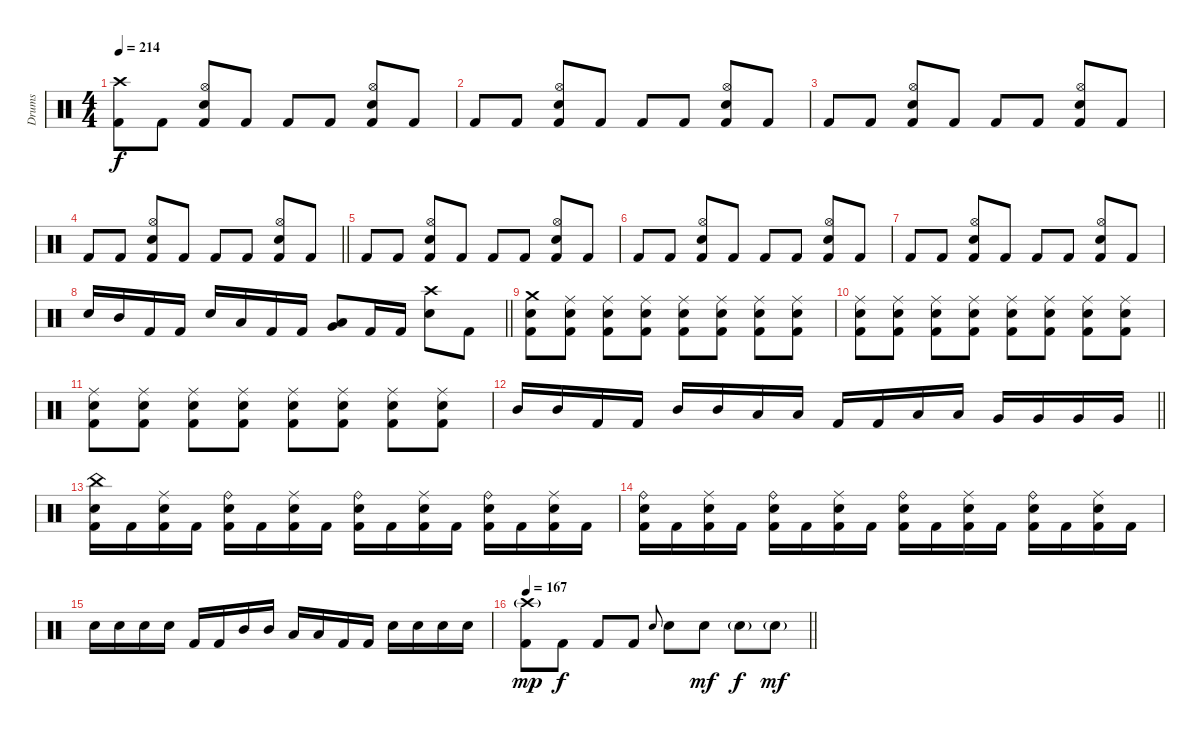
\track ("Drums" "Drums") {instrument percussion}
\staff {score}
\articulation defaults
\ts (4 4)
\section ("" "")
\tempo 214
\clef neutral
\ks c
("Crash high (hit)" "Kick (hit) 2").8{dy f} "Kick (hit) 2".8 ("Hi-Hat (open)" "Electric Snare (hit)" "Kick (hit) 2").8 "Kick (hit) 2".8 "Kick (hit) 2".8 "Kick (hit) 2".8 ("Hi-Hat (open)" "Electric Snare (hit)" "Kick (hit) 2").8 "Kick (hit) 2".8 |
"Kick (hit) 2".8 "Kick (hit) 2".8 ("Hi-Hat (open)" "Electric Snare (hit)" "Kick (hit) 2").8 "Kick (hit) 2".8 "Kick (hit) 2".8 "Kick (hit) 2".8 ("Hi-Hat (open)" "Electric Snare (hit)" "Kick (hit) 2").8 "Kick (hit) 2".8 |
"Kick (hit) 2".8 "Kick (hit) 2".8 ("Hi-Hat (open)" "Electric Snare (hit)" "Kick (hit) 2").8 "Kick (hit) 2".8 "Kick (hit) 2".8 "Kick (hit) 2".8 ("Hi-Hat (open)" "Electric Snare (hit)" "Kick (hit) 2").8 "Kick (hit) 2".8 |
\barLineRight lightlight "Kick (hit) 2".8 "Kick (hit) 2".8
("Hi-Hat (open)" "Electric Snare (hit)" "Kick (hit) 2").8 "Kick (hit) 2".8 "Kick (hit) 2".8 "Kick (hit) 2".8 ("Hi-Hat (open)" "Electric Snare (hit)" "Kick (hit) 2").8 "Kick (hit) 2".8 |
"Kick (hit) 2".8 "Kick (hit) 2".8 ("Hi-Hat (open)" "Electric Snare (hit)" "Kick (hit) 2").8 "Kick (hit) 2".8 "Kick (hit) 2".8 "Kick (hit) 2".8 ("Hi-Hat (open)" "Electric Snare (hit)" "Kick (hit) 2").8 "Kick (hit) 2".8 |
"Kick (hit) 2".8 "Kick (hit) 2".8 ("Hi-Hat (open)" "Electric Snare (hit)" "Kick (hit) 2").8 "Kick (hit) 2".8 "Kick (hit) 2".8 "Kick (hit) 2".8 ("Hi-Hat (open)" "Electric Snare (hit)" "Kick (hit) 2").8 "Kick (hit) 2".8 |
"Kick (hit) 2".8 "Kick (hit) 2".8 ("Hi-Hat (open)" "Electric Snare (hit)" "Kick (hit) 2").8 "Kick (hit) 2".8 "Kick (hit) 2".8 "Kick (hit) 2".8 ("Hi-Hat (open)" "Electric Snare (hit)" "Kick (hit) 2").8 "Kick (hit) 2".8 |
\barLineRight lightlight "Electric Snare (hit)".16 "Mid Tom (hit)".16 "Kick (hit) 2".16 "Kick (hit) 2".16 "Electric Snare (hit)".16 "Low Tom (hit)".16 "Kick (hit) 2".16 "Kick (hit) 2".16
("Low Tom (hit)" "Very Low Tom (hit)").8 "Kick (hit) 2".16 "Kick (hit) 2".16 ("Crash high (hit)" "Electric Snare (hit)").8 "Kick (hit) 2".8 |
\section ("" "")
("Crash medium (hit)" "Electric Snare (hit)" "Kick (hit) 2").8 ("Ride (middle)" "Electric Snare (hit)" "Kick (hit) 2").8 ("Ride (middle)" "Electric Snare (hit)" "Kick (hit) 2").8 ("Ride (middle)" "Electric Snare (hit)" "Kick (hit) 2").8 ("Ride (middle)" "Electric Snare (hit)" "Kick (hit) 2").8 ("Ride (middle)" "Electric Snare (hit)" "Kick (hit) 2").8 ("Ride (middle)" "Electric Snare (hit)" "Kick (hit) 2").8 ("Ride (middle)" "Electric Snare (hit)" "Kick (hit) 2").8 |
("Ride (middle)" "Electric Snare (hit)" "Kick (hit) 2").8 ("Ride (middle)" "Electric Snare (hit)" "Kick (hit) 2").8 ("Ride (middle)" "Electric Snare (hit)" "Kick (hit) 2").8 ("Ride (middle)" "Electric Snare (hit)" "Kick (hit) 2").8 ("Ride (middle)" "Electric Snare (hit)" "Kick (hit) 2").8 ("Ride (middle)" "Electric Snare (hit)" "Kick (hit) 2").8 ("Ride (middle)" "Electric Snare (hit)" "Kick (hit) 2").8 ("Ride (middle)" "Electric Snare (hit)" "Kick (hit) 2").8 |
("Ride (middle)" "Electric Snare (hit)" "Kick (hit) 2").8 ("Ride (middle)" "Electric Snare (hit)" "Kick (hit) 2").8 ("Ride (middle)" "Electric Snare (hit)" "Kick (hit) 2").8 ("Ride (middle)" "Electric Snare (hit)" "Kick (hit) 2").8 ("Ride (middle)" "Electric Snare (hit)" "Kick (hit) 2").8 ("Ride (middle)" "Electric Snare (hit)" "Kick (hit) 2").8 ("Ride (middle)" "Electric Snare (hit)" "Kick (hit) 2").8 ("Ride (middle)" "Electric Snare (hit)" "Kick (hit) 2").8 |
\barLineRight lightlight "Mid Tom (hit)".16 "Mid Tom (hit)".16 "Kick (hit) 2".16 "Kick (hit) 2".16 "Mid Tom (hit)".16 "Mid Tom (hit)".16 "Low Tom (hit)".16 "Low Tom (hit)".16 "Kick (hit) 2".16 "Kick (hit) 2".16 "Low Tom (hit)".16 "Low Tom (hit)".16 "Very Low Tom (hit)".16 "Very Low Tom (hit)".16 "Very Low Tom (hit)".16 "Very Low Tom (hit)".16
|
("China (hit)" "Electric Snare (hit)" "Kick (hit) 2").16 "Kick (hit) 2".16 ("Ride (middle)" "Electric Snare (hit)" "Kick (hit) 2").16 "Kick (hit) 2".16 ("Ride (bell)" "Electric Snare (hit)" "Kick (hit) 2").16 "Kick (hit) 2".16 ("Ride (middle)" "Electric Snare (hit)" "Kick (hit) 2").16 "Kick (hit) 2".16 ("Ride (bell)" "Electric Snare (hit)" "Kick (hit) 2").16 "Kick (hit) 2".16 ("Ride (middle)" "Electric Snare (hit)" "Kick (hit) 2").16 "Kick (hit) 2".16 ("Ride (bell)" "Electric Snare (hit)" "Kick (hit) 2").16 "Kick (hit) 2".16 ("Ride (middle)" "Electric Snare (hit)" "Kick (hit) 2").16 "Kick (hit) 2".16 |
("Ride (bell)" "Electric Snare (hit)" "Kick (hit) 2").16 "Kick (hit) 2".16 ("Ride (middle)" "Electric Snare (hit)" "Kick (hit) 2").16 "Kick (hit) 2".16 ("Ride (bell)" "Electric Snare (hit)" "Kick (hit) 2").16 "Kick (hit) 2".16 ("Ride (middle)" "Electric Snare (hit)" "Kick (hit) 2").16 "Kick (hit) 2".16 ("Ride (bell)" "Electric Snare (hit)" "Kick (hit) 2").16 "Kick (hit) 2".16 ("Ride (middle)" "Electric Snare (hit)" "Kick (hit) 2").16 "Kick (hit) 2".16 ("Ride (bell)" "Electric Snare (hit)" "Kick (hit) 2").16 "Kick (hit) 2".16 ("Ride (middle)" "Electric Snare (hit)" "Kick (hit) 2").16 "Kick (hit) 2".16 |
"Electric Snare (hit)".16 "Electric Snare (hit)".16 "Electric Snare (hit)".16 "Electric Snare (hit)".16 "Kick (hit) 2".16 "Kick (hit) 2".16 "Mid Tom (hit)".16 "Mid Tom (hit)".16 "Low Tom (hit)".16 "Low Tom (hit)".16 "Kick (hit) 2".16 "Kick (hit) 2".16 "Electric Snare (hit)".16 "Electric Snare (hit)".16 "Electric Snare (hit)".16 "Electric Snare (hit)".16 |
\tempo 167
\barLineRight lightlight
("Crash high (hit)"{g} "Kick (hit) 2").8{dy mp} "Kick (hit) 2".8{dy f} "Kick (hit) 2".8 "Kick (hit) 2".8 "Electric Snare (hit)".8{gr onbeat} "Electric Snare (hit)".8 "Electric Snare (hit)".8{dy mf} "Electric Snare (hit)"{g}.8{dy f} "Electric Snare (hit)"{g}.8{dy mf}
